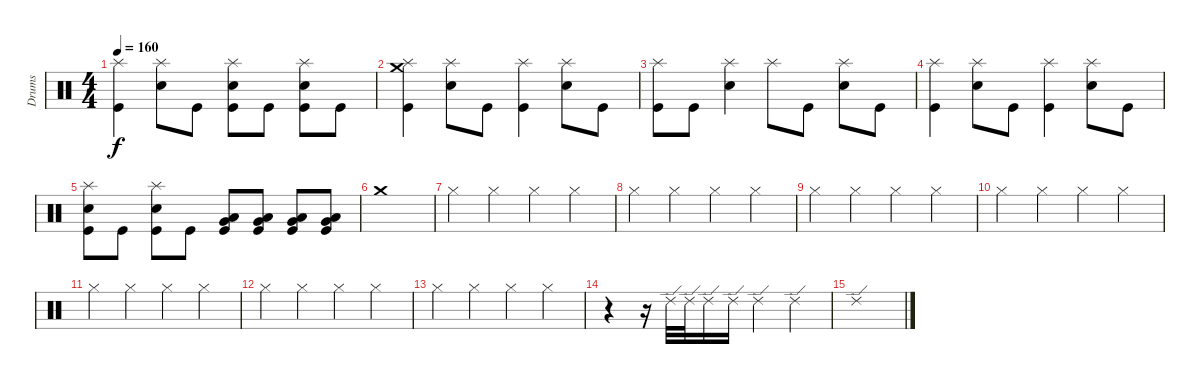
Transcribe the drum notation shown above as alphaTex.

\track ("Drums" "Drums") {instrument percussion}
\staff {score}
\articulation defaults
\ts (4 4)
\tempo 160
\clef neutral
\ks c
("Splash (hit)" "Kick (hit)").4{dy f} ("Splash (hit)" "Electric Snare (hit)").8 "Kick (hit)".8 ("Splash (hit)" "Electric Snare (hit)" "Kick (hit)").8 "Kick (hit)".8 ("Splash (hit)" "Electric Snare (hit)" "Kick (hit)").8 "Kick (hit)".8 |
("Crash medium (hit)" "Splash (hit)" "Kick (hit)").4 ("Splash (hit)" "Electric Snare (hit)").8 "Kick (hit)".8 ("Splash (hit)" "Kick (hit)").4 ("Splash (hit)" "Electric Snare (hit)").8 "Kick (hit)".8 |
("Splash (hit)" "Kick (hit)").8 "Kick (hit)".8 ("Splash (hit)" "Electric Snare (hit)").4 "Splash (hit)".8 "Kick (hit)".8 ("Splash (hit)" "Electric Snare (hit)").8 "Kick (hit)".8 |
("Splash (hit)" "Kick (hit)").4 ("Splash (hit)" "Electric Snare (hit)").8 "Kick (hit)".8 ("Splash (hit)" "Kick (hit)").4 ("Splash (hit)" "Electric Snare (hit)").8 "Kick (hit)".8 |
("Splash (hit)" "Electric Snare (hit)" "Kick (hit)").8 "Kick (hit)".8 ("Splash (hit)" "Electric Snare (hit)" "Kick (hit)").8 "Kick (hit)".8 ("Low Tom (hit)" "Very Low Tom (hit)" "Kick (hit)").8 ("Low Tom (hit)" "Very Low Tom (hit)" "Kick (hit)").8 ("Very Low Tom (hit)" "Low Floor Tom (hit)" "Kick (hit)").8 ("Very Low Tom (hit)" "Low Floor Tom (hit)" "Kick (hit)").8 |
"Crash medium (hit)".1 |
"Hi-Hat (closed)".4 "Hi-Hat (closed)".4 "Hi-Hat (closed)".4 "Hi-Hat (closed)".4 |
"Hi-Hat (closed)".4 "Hi-Hat (closed)".4 "Hi-Hat (closed)".4 "Hi-Hat (closed)".4 |
"Hi-Hat (closed)".4 "Hi-Hat (closed)".4 "Hi-Hat (closed)".4 "Hi-Hat (closed)".4 |
"Hi-Hat (closed)".4 "Hi-Hat (closed)".4 "Hi-Hat (closed)".4 "Hi-Hat (closed)".4 |
"Hi-Hat (closed)".4 "Hi-Hat (closed)".4 "Hi-Hat (closed)".4 "Hi-Hat (closed)".4 |
"Hi-Hat (closed)".4 "Hi-Hat (closed)".4 "Hi-Hat (closed)".4 "Hi-Hat (closed)".4 |
"Hi-Hat (closed)".4 "Hi-Hat (closed)".4 "Hi-Hat (closed)".4 "Hi-Hat (closed)".4 |
r.4 r.16 "Ride (edge) 2".32 "Ride (edge) 2".32 "Ride (edge) 2".16 "Ride (edge) 2".16 "Ride (edge) 2".4 "Ride (edge) 2".4 |
"Ride (edge) 2".1
